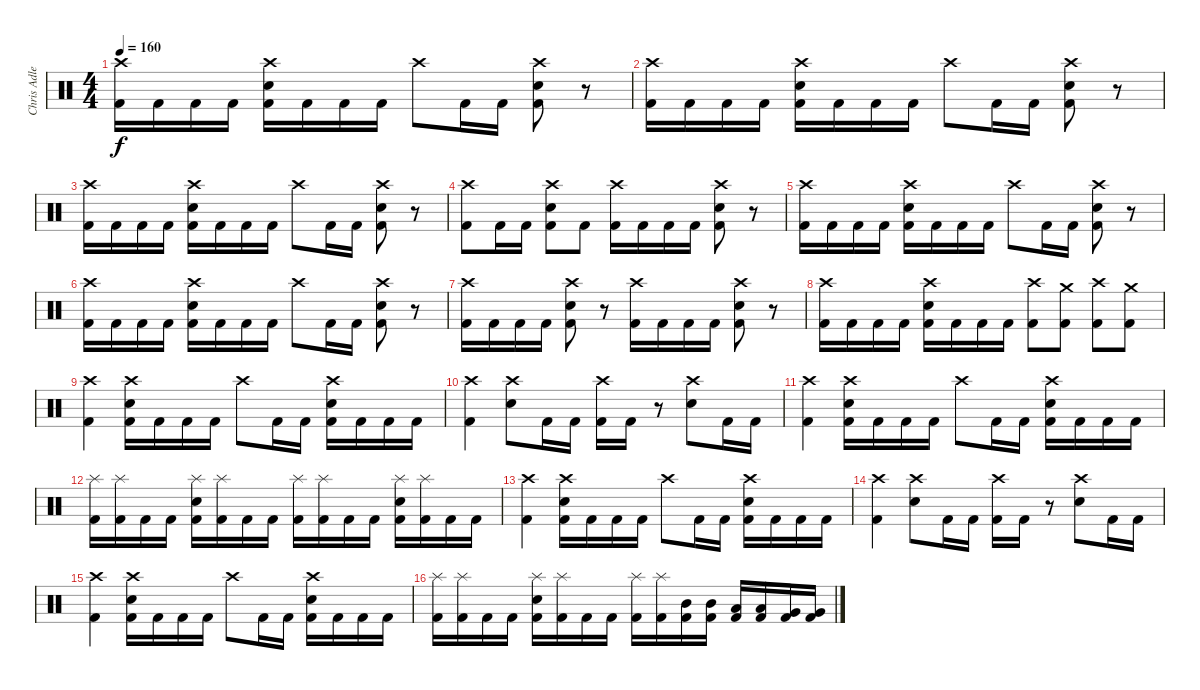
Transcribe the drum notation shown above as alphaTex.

\track ("Chris Adler" "Chris Adle") {instrument percussion}
\staff {score}
\articulation defaults
\ts (4 4)
\tempo 160
\clef neutral
\ks c
("Crash high (hit)" "Kick (hit) 2").16{dy f} "Kick (hit) 2".16 "Kick (hit) 2".16 "Kick (hit) 2".16 ("Crash high (hit)" "Electric Snare (hit)" "Kick (hit) 2").16 "Kick (hit) 2".16 "Kick (hit) 2".16 "Kick (hit) 2".16 "Crash high (hit)".8 "Kick (hit) 2".16 "Kick (hit) 2".16 ("Crash high (hit)" "Electric Snare (hit)" "Kick (hit) 2").8 r.8 |
("Crash high (hit)" "Kick (hit) 2").16 "Kick (hit) 2".16 "Kick (hit) 2".16 "Kick (hit) 2".16 ("Crash high (hit)" "Electric Snare (hit)" "Kick (hit) 2").16 "Kick (hit) 2".16 "Kick (hit) 2".16 "Kick (hit) 2".16 "Crash high (hit)".8 "Kick (hit) 2".16 "Kick (hit) 2".16 ("Crash high (hit)" "Electric Snare (hit)" "Kick (hit) 2").8 r.8 |
("Crash high (hit)" "Kick (hit) 2").16 "Kick (hit) 2".16 "Kick (hit) 2".16 "Kick (hit) 2".16 ("Crash high (hit)" "Electric Snare (hit)" "Kick (hit) 2").16 "Kick (hit) 2".16 "Kick (hit) 2".16 "Kick (hit) 2".16 "Crash high (hit)".8 "Kick (hit) 2".16 "Kick (hit) 2".16 ("Crash high (hit)" "Electric Snare (hit)" "Kick (hit) 2").8 r.8 |
("Crash high (hit)" "Kick (hit) 2").8 "Kick (hit) 2".16 "Kick (hit) 2".16 ("Crash high (hit)" "Electric Snare (hit)" "Kick (hit) 2").8 "Kick (hit) 2".8 ("Crash high (hit)" "Kick (hit) 2").16 "Kick (hit) 2".16 "Kick (hit) 2".16 "Kick (hit) 2".16 ("Crash high (hit)" "Electric Snare (hit)" "Kick (hit) 2").8 r.8 |
("Crash high (hit)" "Kick (hit) 2").16 "Kick (hit) 2".16 "Kick (hit) 2".16 "Kick (hit) 2".16 ("Crash high (hit)" "Electric Snare (hit)" "Kick (hit) 2").16 "Kick (hit) 2".16 "Kick (hit) 2".16 "Kick (hit) 2".16 "Crash high (hit)".8 "Kick (hit) 2".16 "Kick (hit) 2".16 ("Crash high (hit)" "Electric Snare (hit)" "Kick (hit) 2").8 r.8 |
("Crash high (hit)" "Kick (hit) 2").16 "Kick (hit) 2".16 "Kick (hit) 2".16 "Kick (hit) 2".16 ("Crash high (hit)" "Electric Snare (hit)" "Kick (hit) 2").16 "Kick (hit) 2".16 "Kick (hit) 2".16 "Kick (hit) 2".16 "Crash high (hit)".8 "Kick (hit) 2".16 "Kick (hit) 2".16 ("Crash high (hit)" "Electric Snare (hit)" "Kick (hit) 2").8 r.8 |
("Crash high (hit)" "Kick (hit) 2").16 "Kick (hit) 2".16 "Kick (hit) 2".16 "Kick (hit) 2".16 ("Crash high (hit)" "Electric Snare (hit)" "Kick (hit) 2").8 r.8 ("Crash high (hit)" "Kick (hit) 2").16 "Kick (hit) 2".16 "Kick (hit) 2".16 "Kick (hit) 2".16 ("Crash high (hit)" "Electric Snare (hit)" "Kick (hit) 2").8 r.8 |
("Crash high (hit)" "Kick (hit) 2").16 "Kick (hit) 2".16 "Kick (hit) 2".16 "Kick (hit) 2".16 ("Crash high (hit)" "Electric Snare (hit)" "Kick (hit) 2").16 "Kick (hit) 2".16 "Kick (hit) 2".16 "Kick (hit) 2".16 ("Crash high (hit)" "Kick (hit) 2").8 ("Crash medium (hit)" "Kick (hit) 2").8 ("Crash high (hit)" "Kick (hit) 2").8 ("Crash medium (hit)" "Kick (hit) 2").8 |
("Crash high (hit)" "Kick (hit) 2").4 ("Crash high (hit)" "Electric Snare (hit)" "Kick (hit) 2").16 "Kick (hit) 2".16 "Kick (hit) 2".16 "Kick (hit) 2".16 "Crash high (hit)".8 "Kick (hit) 2".16 "Kick (hit) 2".16 ("Crash high (hit)" "Electric Snare (hit)" "Kick (hit) 2").16 "Kick (hit) 2".16 "Kick (hit) 2".16 "Kick (hit) 2".16 |
("Crash high (hit)" "Kick (hit) 2").4 ("Crash high (hit)" "Electric Snare (hit)").8 "Kick (hit) 2".16 "Kick (hit) 2".16 ("Crash high (hit)" "Kick (hit) 2").16 "Kick (hit) 2".16 r.8 ("Crash high (hit)" "Electric Snare (hit)").8 "Kick (hit) 2".16 "Kick (hit) 2".16 |
("Crash high (hit)" "Kick (hit) 2").4 ("Crash high (hit)" "Electric Snare (hit)" "Kick (hit) 2").16 "Kick (hit) 2".16 "Kick (hit) 2".16 "Kick (hit) 2".16 "Crash high (hit)".8 "Kick (hit) 2".16 "Kick (hit) 2".16 ("Crash high (hit)" "Electric Snare (hit)" "Kick (hit) 2").16 "Kick (hit) 2".16 "Kick (hit) 2".16 "Kick (hit) 2".16 |
("Splash (hit)" "Kick (hit) 2").16 ("Splash (hit)" "Kick (hit) 2").16 "Kick (hit) 2".16 "Kick (hit) 2".16 ("Splash (hit)" "Electric Snare (hit)" "Kick (hit) 2").16 ("Splash (hit)" "Kick (hit) 2").16 "Kick (hit) 2".16 "Kick (hit) 2".16 ("Splash (hit)" "Kick (hit) 2").16 ("Splash (hit)" "Kick (hit) 2").16 "Kick (hit) 2".16 "Kick (hit) 2".16 ("Splash (hit)" "Electric Snare (hit)" "Kick (hit) 2").16 ("Splash (hit)" "Kick (hit) 2").16 "Kick (hit) 2".16 "Kick (hit) 2".16 |
("Crash high (hit)" "Kick (hit) 2").4 ("Crash high (hit)" "Electric Snare (hit)" "Kick (hit) 2").16 "Kick (hit) 2".16 "Kick (hit) 2".16 "Kick (hit) 2".16 "Crash high (hit)".8 "Kick (hit) 2".16 "Kick (hit) 2".16 ("Crash high (hit)" "Electric Snare (hit)" "Kick (hit) 2").16 "Kick (hit) 2".16 "Kick (hit) 2".16 "Kick (hit) 2".16 |
("Crash high (hit)" "Kick (hit) 2").4 ("Crash high (hit)" "Electric Snare (hit)").8 "Kick (hit) 2".16 "Kick (hit) 2".16 ("Crash high (hit)" "Kick (hit) 2").16 "Kick (hit) 2".16 r.8 ("Crash high (hit)" "Electric Snare (hit)").8 "Kick (hit) 2".16 "Kick (hit) 2".16 |
("Crash high (hit)" "Kick (hit) 2").4 ("Crash high (hit)" "Electric Snare (hit)" "Kick (hit) 2").16 "Kick (hit) 2".16 "Kick (hit) 2".16 "Kick (hit) 2".16 "Crash high (hit)".8 "Kick (hit) 2".16 "Kick (hit) 2".16 ("Crash high (hit)" "Electric Snare (hit)" "Kick (hit) 2").16 "Kick (hit) 2".16 "Kick (hit) 2".16 "Kick (hit) 2".16 |
("Splash (hit)" "Kick (hit) 2").16 ("Splash (hit)" "Kick (hit) 2").16 "Kick (hit) 2".16 "Kick (hit) 2".16 ("Splash (hit)" "Electric Snare (hit)" "Kick (hit) 2").16 ("Splash (hit)" "Kick (hit) 2").16 "Kick (hit) 2".16 "Kick (hit) 2".16 ("Splash (hit)" "Kick (hit) 2").16 ("Splash (hit)" "Kick (hit) 2").16 ("Mid Tom (hit)" "Kick (hit) 2").16 ("Mid Tom (hit)" "Kick (hit) 2").16 ("Low Tom (hit)" "Kick (hit) 2").16 ("Low Tom (hit)" "Kick (hit) 2").16 ("Very Low Tom (hit)" "Kick (hit) 2").16 ("Very Low Tom (hit)" "Kick (hit) 2").16
